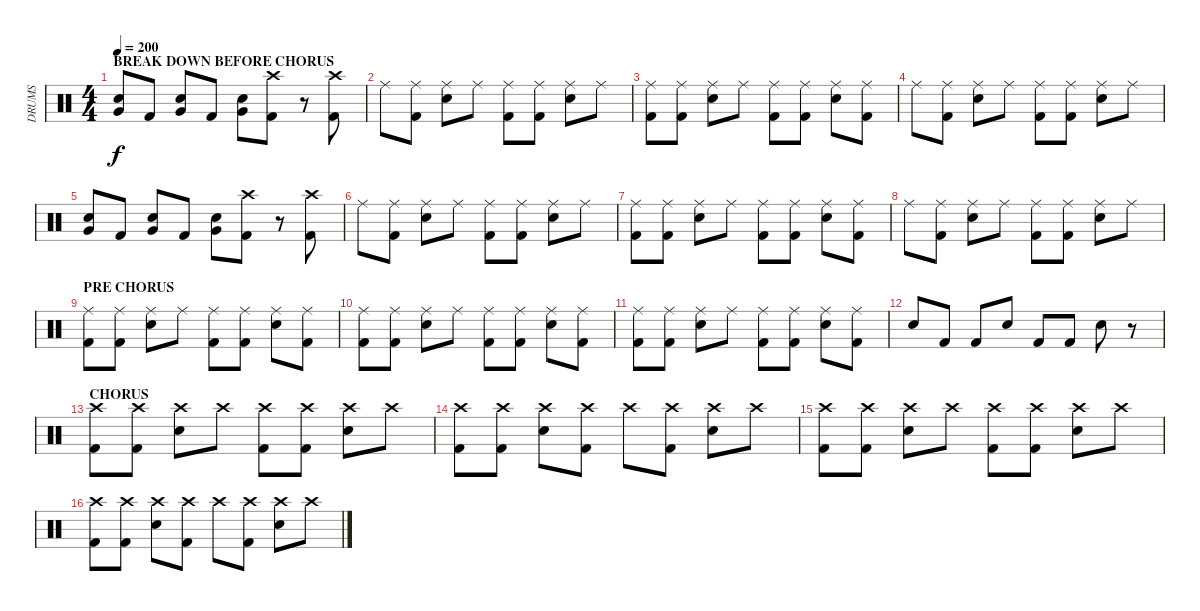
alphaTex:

\track ("DRUMS" "DRUMS") {instrument percussion}
\staff {score}
\articulation defaults
\ts (4 4)
\section ("" "BREAK DOWN BEFORE CHORUS")
\tempo 200
\clef neutral
\ks c
("Very Low Tom (hit)" "Snare (hit) 2").8{dy f} "Kick (hit) 2".8 ("Very Low Tom (hit)" "Snare (hit) 2").8 "Kick (hit) 2".8 ("Very Low Tom (hit)" "Snare (hit) 2").8 ("Crash high (hit)" "Kick (hit) 2").8 r.8 ("Crash high (hit)" "Kick (hit) 2").8 |
"Ride (middle)".8 ("Ride (middle)" "Kick (hit) 2").8 ("Ride (middle)" "Snare (hit) 2").8 "Ride (middle)".8 ("Ride (middle)" "Kick (hit) 2").8 ("Ride (middle)" "Kick (hit) 2").8 ("Ride (middle)" "Snare (hit) 2").8 "Ride (middle)".8 |
("Ride (middle)" "Kick (hit) 2").8 ("Ride (middle)" "Kick (hit) 2").8 ("Ride (middle)" "Snare (hit) 2").8 "Ride (middle)".8 ("Ride (middle)" "Kick (hit) 2").8 ("Ride (middle)" "Kick (hit) 2").8 ("Ride (middle)" "Snare (hit) 2").8 ("Ride (middle)" "Kick (hit) 2").8 |
"Ride (middle)".8 ("Ride (middle)" "Kick (hit) 2").8 ("Ride (middle)" "Snare (hit) 2").8 "Ride (middle)".8 ("Ride (middle)" "Kick (hit) 2").8 ("Ride (middle)" "Kick (hit) 2").8 ("Ride (middle)" "Snare (hit) 2").8 "Ride (middle)".8 |
("Very Low Tom (hit)" "Snare (hit) 2").8 "Kick (hit) 2".8 ("Very Low Tom (hit)" "Snare (hit) 2").8 "Kick (hit) 2".8 ("Very Low Tom (hit)" "Snare (hit) 2").8 ("Crash high (hit)" "Kick (hit) 2").8 r.8 ("Crash high (hit)" "Kick (hit) 2").8 |
"Ride (middle)".8 ("Ride (middle)" "Kick (hit) 2").8 ("Ride (middle)" "Snare (hit) 2").8 "Ride (middle)".8 ("Ride (middle)" "Kick (hit) 2").8 ("Ride (middle)" "Kick (hit) 2").8 ("Ride (middle)" "Snare (hit) 2").8 "Ride (middle)".8 |
("Ride (middle)" "Kick (hit) 2").8 ("Ride (middle)" "Kick (hit) 2").8 ("Ride (middle)" "Snare (hit) 2").8 "Ride (middle)".8 ("Ride (middle)" "Kick (hit) 2").8 ("Ride (middle)" "Kick (hit) 2").8 ("Ride (middle)" "Snare (hit) 2").8 ("Ride (middle)" "Kick (hit) 2").8 |
"Ride (middle)".8 ("Ride (middle)" "Kick (hit) 2").8 ("Ride (middle)" "Snare (hit) 2").8 "Ride (middle)".8 ("Ride (middle)" "Kick (hit) 2").8 ("Ride (middle)" "Kick (hit) 2").8 ("Ride (middle)" "Snare (hit) 2").8 "Ride (middle)".8 |
\section ("" "PRE CHORUS")
("Ride (middle)" "Kick (hit) 2").8 ("Ride (middle)" "Kick (hit) 2").8 ("Ride (middle)" "Snare (hit) 2").8 "Ride (middle)".8 ("Ride (middle)" "Kick (hit) 2").8 ("Ride (middle)" "Kick (hit) 2").8 ("Ride (middle)" "Snare (hit) 2").8 ("Ride (middle)" "Kick (hit) 2").8 |
("Ride (middle)" "Kick (hit) 2").8 ("Ride (middle)" "Kick (hit) 2").8 ("Ride (middle)" "Snare (hit) 2").8 "Ride (middle)".8 ("Ride (middle)" "Kick (hit) 2").8 ("Ride (middle)" "Kick (hit) 2").8 ("Ride (middle)" "Snare (hit) 2").8 ("Ride (middle)" "Kick (hit) 2").8 |
("Ride (middle)" "Kick (hit) 2").8 ("Ride (middle)" "Kick (hit) 2").8 ("Ride (middle)" "Snare (hit) 2").8 "Ride (middle)".8 ("Ride (middle)" "Kick (hit) 2").8 ("Ride (middle)" "Kick (hit) 2").8 ("Ride (middle)" "Snare (hit) 2").8 ("Ride (middle)" "Kick (hit) 2").8 |
"Snare (hit) 2".8 "Kick (hit) 2".8 "Kick (hit) 2".8 "Snare (hit) 2".8 "Kick (hit) 2".8 "Kick (hit) 2".8 "Snare (hit) 2".8 r.8 |
\section ("" "CHORUS")
("Crash high (hit)" "Kick (hit) 2").8 ("Crash high (hit)" "Kick (hit) 2").8 ("Crash high (hit)" "Snare (hit) 2").8 "Crash high (hit)".8 ("Crash high (hit)" "Kick (hit) 2").8 ("Crash high (hit)" "Kick (hit) 2").8 ("Crash high (hit)" "Snare (hit) 2").8 "Crash high (hit)".8 |
("Crash high (hit)" "Kick (hit) 2").8 ("Crash high (hit)" "Kick (hit) 2").8 ("Crash high (hit)" "Snare (hit) 2").8 ("Crash high (hit)" "Kick (hit) 2").8 "Crash high (hit)".8 ("Crash high (hit)" "Kick (hit) 2").8 ("Crash high (hit)" "Snare (hit) 2").8 "Crash high (hit)".8 |
("Crash high (hit)" "Kick (hit) 2").8 ("Crash high (hit)" "Kick (hit) 2").8 ("Crash high (hit)" "Snare (hit) 2").8 "Crash high (hit)".8 ("Crash high (hit)" "Kick (hit) 2").8 ("Crash high (hit)" "Kick (hit) 2").8 ("Crash high (hit)" "Snare (hit) 2").8 "Crash high (hit)".8 |
("Crash high (hit)" "Kick (hit) 2").8 ("Crash high (hit)" "Kick (hit) 2").8 ("Crash high (hit)" "Snare (hit) 2").8 ("Crash high (hit)" "Kick (hit) 2").8 "Crash high (hit)".8 ("Crash high (hit)" "Kick (hit) 2").8 ("Crash high (hit)" "Snare (hit) 2").8 "Crash high (hit)".8
